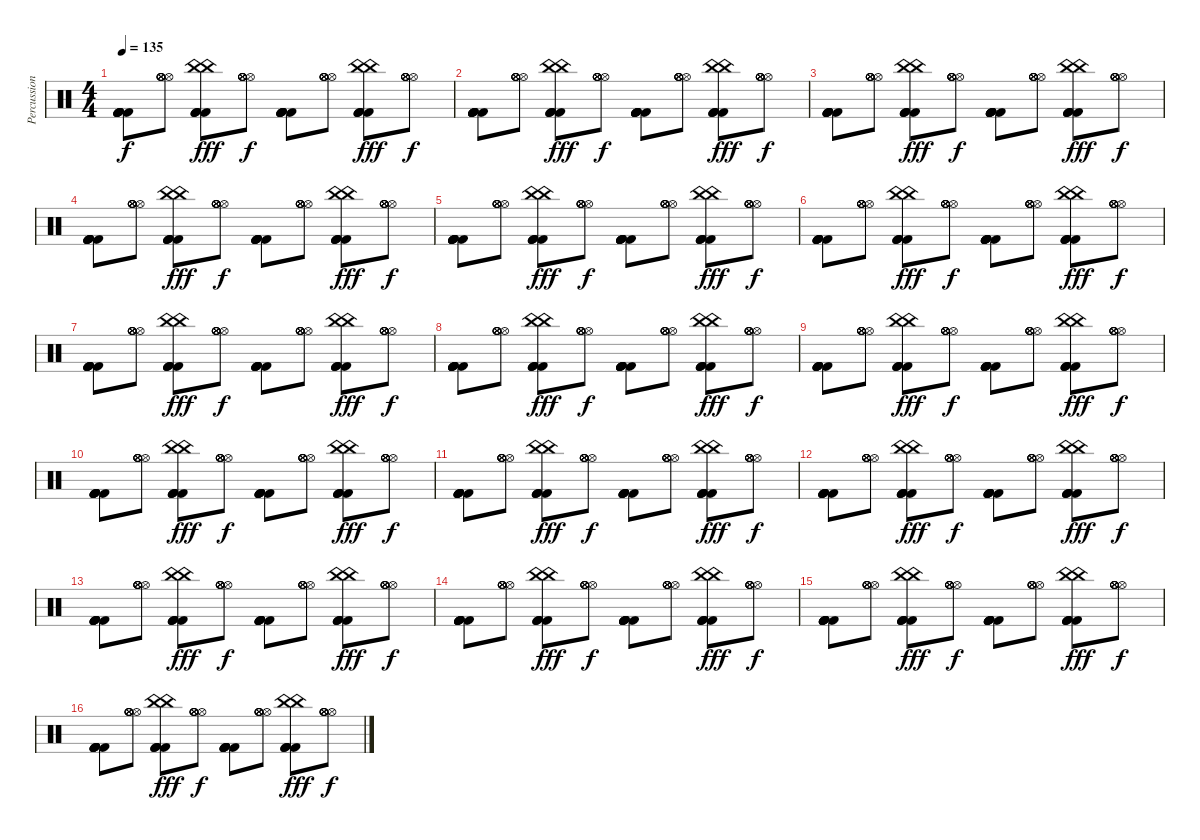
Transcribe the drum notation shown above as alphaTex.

\track ("Percussion" "Percussion") {instrument percussion}
\staff {score}
\articulation defaults
\ts (4 4)
\tempo 135
\clef neutral
\ks c
("Kick (hit) 2" "Kick (hit) 2" "Kick (hit) 2" "Kick (hit) 2" "Kick (hit) 2" "Kick (hit) 2").8{dy f} ("Hi-Hat (open)" "Hi-Hat (open)" "Hi-Hat (open)" "Hi-Hat (open)" "Hi-Hat (open)" "Hi-Hat (open)").8 ("China (hit)" "China (hit)" "Kick (hit) 2" "Kick (hit) 2" "Kick (hit) 2" "Kick (hit) 2").8{dy fff} ("Hi-Hat (open)" "Hi-Hat (open)" "Hi-Hat (open)" "Hi-Hat (open)" "Hi-Hat (open)" "Hi-Hat (open)").8{dy f} ("Kick (hit) 2" "Kick (hit) 2" "Kick (hit) 2" "Kick (hit) 2" "Kick (hit) 2" "Kick (hit) 2").8 ("Hi-Hat (open)" "Hi-Hat (open)" "Hi-Hat (open)" "Hi-Hat (open)" "Hi-Hat (open)" "Hi-Hat (open)").8 ("China (hit)" "China (hit)" "Kick (hit) 2" "Kick (hit) 2" "Kick (hit) 2" "Kick (hit) 2").8{dy fff} ("Hi-Hat (open)" "Hi-Hat (open)" "Hi-Hat (open)" "Hi-Hat (open)" "Hi-Hat (open)" "Hi-Hat (open)").8{dy f} |
("Kick (hit) 2" "Kick (hit) 2" "Kick (hit) 2" "Kick (hit) 2" "Kick (hit) 2" "Kick (hit) 2").8 ("Hi-Hat (open)" "Hi-Hat (open)" "Hi-Hat (open)" "Hi-Hat (open)" "Hi-Hat (open)" "Hi-Hat (open)").8 ("China (hit)" "China (hit)" "Kick (hit) 2" "Kick (hit) 2" "Kick (hit) 2" "Kick (hit) 2").8{dy fff} ("Hi-Hat (open)" "Hi-Hat (open)" "Hi-Hat (open)" "Hi-Hat (open)" "Hi-Hat (open)" "Hi-Hat (open)").8{dy f} ("Kick (hit) 2" "Kick (hit) 2" "Kick (hit) 2" "Kick (hit) 2" "Kick (hit) 2" "Kick (hit) 2").8 ("Hi-Hat (open)" "Hi-Hat (open)" "Hi-Hat (open)" "Hi-Hat (open)" "Hi-Hat (open)" "Hi-Hat (open)").8 ("China (hit)" "China (hit)" "Kick (hit) 2" "Kick (hit) 2" "Kick (hit) 2" "Kick (hit) 2").8{dy fff} ("Hi-Hat (open)" "Hi-Hat (open)" "Hi-Hat (open)" "Hi-Hat (open)" "Hi-Hat (open)" "Hi-Hat (open)").8{dy f} |
("Kick (hit) 2" "Kick (hit) 2" "Kick (hit) 2" "Kick (hit) 2" "Kick (hit) 2" "Kick (hit) 2").8 ("Hi-Hat (open)" "Hi-Hat (open)" "Hi-Hat (open)" "Hi-Hat (open)" "Hi-Hat (open)" "Hi-Hat (open)").8 ("China (hit)" "China (hit)" "Kick (hit) 2" "Kick (hit) 2" "Kick (hit) 2" "Kick (hit) 2").8{dy fff} ("Hi-Hat (open)" "Hi-Hat (open)" "Hi-Hat (open)" "Hi-Hat (open)" "Hi-Hat (open)" "Hi-Hat (open)").8{dy f} ("Kick (hit) 2" "Kick (hit) 2" "Kick (hit) 2" "Kick (hit) 2" "Kick (hit) 2" "Kick (hit) 2").8 ("Hi-Hat (open)" "Hi-Hat (open)" "Hi-Hat (open)" "Hi-Hat (open)" "Hi-Hat (open)" "Hi-Hat (open)").8 ("China (hit)" "China (hit)" "Kick (hit) 2" "Kick (hit) 2" "Kick (hit) 2" "Kick (hit) 2").8{dy fff} ("Hi-Hat (open)" "Hi-Hat (open)" "Hi-Hat (open)" "Hi-Hat (open)" "Hi-Hat (open)" "Hi-Hat (open)").8{dy f} |
("Kick (hit) 2" "Kick (hit) 2" "Kick (hit) 2" "Kick (hit) 2" "Kick (hit) 2" "Kick (hit) 2").8 ("Hi-Hat (open)" "Hi-Hat (open)" "Hi-Hat (open)" "Hi-Hat (open)" "Hi-Hat (open)" "Hi-Hat (open)").8 ("China (hit)" "China (hit)" "Kick (hit) 2" "Kick (hit) 2" "Kick (hit) 2" "Kick (hit) 2").8{dy fff} ("Hi-Hat (open)" "Hi-Hat (open)" "Hi-Hat (open)" "Hi-Hat (open)" "Hi-Hat (open)" "Hi-Hat (open)").8{dy f} ("Kick (hit) 2" "Kick (hit) 2" "Kick (hit) 2" "Kick (hit) 2" "Kick (hit) 2" "Kick (hit) 2").8 ("Hi-Hat (open)" "Hi-Hat (open)" "Hi-Hat (open)" "Hi-Hat (open)" "Hi-Hat (open)" "Hi-Hat (open)").8 ("China (hit)" "China (hit)" "Kick (hit) 2" "Kick (hit) 2" "Kick (hit) 2" "Kick (hit) 2").8{dy fff} ("Hi-Hat (open)" "Hi-Hat (open)" "Hi-Hat (open)" "Hi-Hat (open)" "Hi-Hat (open)" "Hi-Hat (open)").8{dy f} |
("Kick (hit) 2" "Kick (hit) 2" "Kick (hit) 2" "Kick (hit) 2" "Kick (hit) 2" "Kick (hit) 2").8 ("Hi-Hat (open)" "Hi-Hat (open)" "Hi-Hat (open)" "Hi-Hat (open)" "Hi-Hat (open)" "Hi-Hat (open)").8 ("China (hit)" "China (hit)" "Kick (hit) 2" "Kick (hit) 2" "Kick (hit) 2" "Kick (hit) 2").8{dy fff} ("Hi-Hat (open)" "Hi-Hat (open)" "Hi-Hat (open)" "Hi-Hat (open)" "Hi-Hat (open)" "Hi-Hat (open)").8{dy f} ("Kick (hit) 2" "Kick (hit) 2" "Kick (hit) 2" "Kick (hit) 2" "Kick (hit) 2" "Kick (hit) 2").8 ("Hi-Hat (open)" "Hi-Hat (open)" "Hi-Hat (open)" "Hi-Hat (open)" "Hi-Hat (open)" "Hi-Hat (open)").8 ("China (hit)" "China (hit)" "Kick (hit) 2" "Kick (hit) 2" "Kick (hit) 2" "Kick (hit) 2").8{dy fff} ("Hi-Hat (open)" "Hi-Hat (open)" "Hi-Hat (open)" "Hi-Hat (open)" "Hi-Hat (open)" "Hi-Hat (open)").8{dy f} |
("Kick (hit) 2" "Kick (hit) 2" "Kick (hit) 2" "Kick (hit) 2" "Kick (hit) 2" "Kick (hit) 2").8 ("Hi-Hat (open)" "Hi-Hat (open)" "Hi-Hat (open)" "Hi-Hat (open)" "Hi-Hat (open)" "Hi-Hat (open)").8 ("China (hit)" "China (hit)" "Kick (hit) 2" "Kick (hit) 2" "Kick (hit) 2" "Kick (hit) 2").8{dy fff} ("Hi-Hat (open)" "Hi-Hat (open)" "Hi-Hat (open)" "Hi-Hat (open)" "Hi-Hat (open)" "Hi-Hat (open)").8{dy f} ("Kick (hit) 2" "Kick (hit) 2" "Kick (hit) 2" "Kick (hit) 2" "Kick (hit) 2" "Kick (hit) 2").8 ("Hi-Hat (open)" "Hi-Hat (open)" "Hi-Hat (open)" "Hi-Hat (open)" "Hi-Hat (open)" "Hi-Hat (open)").8 ("China (hit)" "China (hit)" "Kick (hit) 2" "Kick (hit) 2" "Kick (hit) 2" "Kick (hit) 2").8{dy fff} ("Hi-Hat (open)" "Hi-Hat (open)" "Hi-Hat (open)" "Hi-Hat (open)" "Hi-Hat (open)" "Hi-Hat (open)").8{dy f} |
("Kick (hit) 2" "Kick (hit) 2" "Kick (hit) 2" "Kick (hit) 2" "Kick (hit) 2" "Kick (hit) 2").8 ("Hi-Hat (open)" "Hi-Hat (open)" "Hi-Hat (open)" "Hi-Hat (open)" "Hi-Hat (open)" "Hi-Hat (open)").8 ("China (hit)" "China (hit)" "Kick (hit) 2" "Kick (hit) 2" "Kick (hit) 2" "Kick (hit) 2").8{dy fff} ("Hi-Hat (open)" "Hi-Hat (open)" "Hi-Hat (open)" "Hi-Hat (open)" "Hi-Hat (open)" "Hi-Hat (open)").8{dy f} ("Kick (hit) 2" "Kick (hit) 2" "Kick (hit) 2" "Kick (hit) 2" "Kick (hit) 2" "Kick (hit) 2").8 ("Hi-Hat (open)" "Hi-Hat (open)" "Hi-Hat (open)" "Hi-Hat (open)" "Hi-Hat (open)" "Hi-Hat (open)").8 ("China (hit)" "China (hit)" "Kick (hit) 2" "Kick (hit) 2" "Kick (hit) 2" "Kick (hit) 2").8{dy fff} ("Hi-Hat (open)" "Hi-Hat (open)" "Hi-Hat (open)" "Hi-Hat (open)" "Hi-Hat (open)" "Hi-Hat (open)").8{dy f} |
("Kick (hit) 2" "Kick (hit) 2" "Kick (hit) 2" "Kick (hit) 2" "Kick (hit) 2" "Kick (hit) 2").8 ("Hi-Hat (open)" "Hi-Hat (open)" "Hi-Hat (open)" "Hi-Hat (open)" "Hi-Hat (open)" "Hi-Hat (open)").8 ("China (hit)" "China (hit)" "Kick (hit) 2" "Kick (hit) 2" "Kick (hit) 2" "Kick (hit) 2").8{dy fff} ("Hi-Hat (open)" "Hi-Hat (open)" "Hi-Hat (open)" "Hi-Hat (open)" "Hi-Hat (open)" "Hi-Hat (open)").8{dy f} ("Kick (hit) 2" "Kick (hit) 2" "Kick (hit) 2" "Kick (hit) 2" "Kick (hit) 2" "Kick (hit) 2").8 ("Hi-Hat (open)" "Hi-Hat (open)" "Hi-Hat (open)" "Hi-Hat (open)" "Hi-Hat (open)" "Hi-Hat (open)").8 ("China (hit)" "China (hit)" "Kick (hit) 2" "Kick (hit) 2" "Kick (hit) 2" "Kick (hit) 2").8{dy fff} ("Hi-Hat (open)" "Hi-Hat (open)" "Hi-Hat (open)" "Hi-Hat (open)" "Hi-Hat (open)" "Hi-Hat (open)").8{dy f} |
("Kick (hit) 2" "Kick (hit) 2" "Kick (hit) 2" "Kick (hit) 2" "Kick (hit) 2" "Kick (hit) 2").8 ("Hi-Hat (open)" "Hi-Hat (open)" "Hi-Hat (open)" "Hi-Hat (open)" "Hi-Hat (open)" "Hi-Hat (open)").8 ("China (hit)" "China (hit)" "Kick (hit) 2" "Kick (hit) 2" "Kick (hit) 2" "Kick (hit) 2").8{dy fff} ("Hi-Hat (open)" "Hi-Hat (open)" "Hi-Hat (open)" "Hi-Hat (open)" "Hi-Hat (open)" "Hi-Hat (open)").8{dy f} ("Kick (hit) 2" "Kick (hit) 2" "Kick (hit) 2" "Kick (hit) 2" "Kick (hit) 2" "Kick (hit) 2").8 ("Hi-Hat (open)" "Hi-Hat (open)" "Hi-Hat (open)" "Hi-Hat (open)" "Hi-Hat (open)" "Hi-Hat (open)").8 ("China (hit)" "China (hit)" "Kick (hit) 2" "Kick (hit) 2" "Kick (hit) 2" "Kick (hit) 2").8{dy fff} ("Hi-Hat (open)" "Hi-Hat (open)" "Hi-Hat (open)" "Hi-Hat (open)" "Hi-Hat (open)" "Hi-Hat (open)").8{dy f} |
("Kick (hit) 2" "Kick (hit) 2" "Kick (hit) 2" "Kick (hit) 2" "Kick (hit) 2" "Kick (hit) 2").8 ("Hi-Hat (open)" "Hi-Hat (open)" "Hi-Hat (open)" "Hi-Hat (open)" "Hi-Hat (open)" "Hi-Hat (open)").8 ("China (hit)" "China (hit)" "Kick (hit) 2" "Kick (hit) 2" "Kick (hit) 2" "Kick (hit) 2").8{dy fff} ("Hi-Hat (open)" "Hi-Hat (open)" "Hi-Hat (open)" "Hi-Hat (open)" "Hi-Hat (open)" "Hi-Hat (open)").8{dy f} ("Kick (hit) 2" "Kick (hit) 2" "Kick (hit) 2" "Kick (hit) 2" "Kick (hit) 2" "Kick (hit) 2").8 ("Hi-Hat (open)" "Hi-Hat (open)" "Hi-Hat (open)" "Hi-Hat (open)" "Hi-Hat (open)" "Hi-Hat (open)").8 ("China (hit)" "China (hit)" "Kick (hit) 2" "Kick (hit) 2" "Kick (hit) 2" "Kick (hit) 2").8{dy fff} ("Hi-Hat (open)" "Hi-Hat (open)" "Hi-Hat (open)" "Hi-Hat (open)" "Hi-Hat (open)" "Hi-Hat (open)").8{dy f} |
("Kick (hit) 2" "Kick (hit) 2" "Kick (hit) 2" "Kick (hit) 2" "Kick (hit) 2" "Kick (hit) 2").8 ("Hi-Hat (open)" "Hi-Hat (open)" "Hi-Hat (open)" "Hi-Hat (open)" "Hi-Hat (open)" "Hi-Hat (open)").8 ("China (hit)" "China (hit)" "Kick (hit) 2" "Kick (hit) 2" "Kick (hit) 2" "Kick (hit) 2").8{dy fff} ("Hi-Hat (open)" "Hi-Hat (open)" "Hi-Hat (open)" "Hi-Hat (open)" "Hi-Hat (open)" "Hi-Hat (open)").8{dy f} ("Kick (hit) 2" "Kick (hit) 2" "Kick (hit) 2" "Kick (hit) 2" "Kick (hit) 2" "Kick (hit) 2").8 ("Hi-Hat (open)" "Hi-Hat (open)" "Hi-Hat (open)" "Hi-Hat (open)" "Hi-Hat (open)" "Hi-Hat (open)").8 ("China (hit)" "China (hit)" "Kick (hit) 2" "Kick (hit) 2" "Kick (hit) 2" "Kick (hit) 2").8{dy fff} ("Hi-Hat (open)" "Hi-Hat (open)" "Hi-Hat (open)" "Hi-Hat (open)" "Hi-Hat (open)" "Hi-Hat (open)").8{dy f} |
("Kick (hit) 2" "Kick (hit) 2" "Kick (hit) 2" "Kick (hit) 2" "Kick (hit) 2" "Kick (hit) 2").8 ("Hi-Hat (open)" "Hi-Hat (open)" "Hi-Hat (open)" "Hi-Hat (open)" "Hi-Hat (open)" "Hi-Hat (open)").8 ("China (hit)" "China (hit)" "Kick (hit) 2" "Kick (hit) 2" "Kick (hit) 2" "Kick (hit) 2").8{dy fff} ("Hi-Hat (open)" "Hi-Hat (open)" "Hi-Hat (open)" "Hi-Hat (open)" "Hi-Hat (open)" "Hi-Hat (open)").8{dy f} ("Kick (hit) 2" "Kick (hit) 2" "Kick (hit) 2" "Kick (hit) 2" "Kick (hit) 2" "Kick (hit) 2").8 ("Hi-Hat (open)" "Hi-Hat (open)" "Hi-Hat (open)" "Hi-Hat (open)" "Hi-Hat (open)" "Hi-Hat (open)").8 ("China (hit)" "China (hit)" "Kick (hit) 2" "Kick (hit) 2" "Kick (hit) 2" "Kick (hit) 2").8{dy fff} ("Hi-Hat (open)" "Hi-Hat (open)" "Hi-Hat (open)" "Hi-Hat (open)" "Hi-Hat (open)" "Hi-Hat (open)").8{dy f} |
("Kick (hit) 2" "Kick (hit) 2" "Kick (hit) 2" "Kick (hit) 2" "Kick (hit) 2" "Kick (hit) 2").8 ("Hi-Hat (open)" "Hi-Hat (open)" "Hi-Hat (open)" "Hi-Hat (open)" "Hi-Hat (open)" "Hi-Hat (open)").8 ("China (hit)" "China (hit)" "Kick (hit) 2" "Kick (hit) 2" "Kick (hit) 2" "Kick (hit) 2").8{dy fff} ("Hi-Hat (open)" "Hi-Hat (open)" "Hi-Hat (open)" "Hi-Hat (open)" "Hi-Hat (open)" "Hi-Hat (open)").8{dy f} ("Kick (hit) 2" "Kick (hit) 2" "Kick (hit) 2" "Kick (hit) 2" "Kick (hit) 2" "Kick (hit) 2").8 ("Hi-Hat (open)" "Hi-Hat (open)" "Hi-Hat (open)" "Hi-Hat (open)" "Hi-Hat (open)" "Hi-Hat (open)").8 ("China (hit)" "China (hit)" "Kick (hit) 2" "Kick (hit) 2" "Kick (hit) 2" "Kick (hit) 2").8{dy fff} ("Hi-Hat (open)" "Hi-Hat (open)" "Hi-Hat (open)" "Hi-Hat (open)" "Hi-Hat (open)" "Hi-Hat (open)").8{dy f} |
("Kick (hit) 2" "Kick (hit) 2" "Kick (hit) 2" "Kick (hit) 2" "Kick (hit) 2" "Kick (hit) 2").8 ("Hi-Hat (open)" "Hi-Hat (open)" "Hi-Hat (open)" "Hi-Hat (open)" "Hi-Hat (open)" "Hi-Hat (open)").8 ("China (hit)" "China (hit)" "Kick (hit) 2" "Kick (hit) 2" "Kick (hit) 2" "Kick (hit) 2").8{dy fff} ("Hi-Hat (open)" "Hi-Hat (open)" "Hi-Hat (open)" "Hi-Hat (open)" "Hi-Hat (open)" "Hi-Hat (open)").8{dy f} ("Kick (hit) 2" "Kick (hit) 2" "Kick (hit) 2" "Kick (hit) 2" "Kick (hit) 2" "Kick (hit) 2").8 ("Hi-Hat (open)" "Hi-Hat (open)" "Hi-Hat (open)" "Hi-Hat (open)" "Hi-Hat (open)" "Hi-Hat (open)").8 ("China (hit)" "China (hit)" "Kick (hit) 2" "Kick (hit) 2" "Kick (hit) 2" "Kick (hit) 2").8{dy fff} ("Hi-Hat (open)" "Hi-Hat (open)" "Hi-Hat (open)" "Hi-Hat (open)" "Hi-Hat (open)" "Hi-Hat (open)").8{dy f} |
("Kick (hit) 2" "Kick (hit) 2" "Kick (hit) 2" "Kick (hit) 2" "Kick (hit) 2" "Kick (hit) 2").8 ("Hi-Hat (open)" "Hi-Hat (open)" "Hi-Hat (open)" "Hi-Hat (open)" "Hi-Hat (open)" "Hi-Hat (open)").8 ("China (hit)" "China (hit)" "Kick (hit) 2" "Kick (hit) 2" "Kick (hit) 2" "Kick (hit) 2").8{dy fff} ("Hi-Hat (open)" "Hi-Hat (open)" "Hi-Hat (open)" "Hi-Hat (open)" "Hi-Hat (open)" "Hi-Hat (open)").8{dy f} ("Kick (hit) 2" "Kick (hit) 2" "Kick (hit) 2" "Kick (hit) 2" "Kick (hit) 2" "Kick (hit) 2").8 ("Hi-Hat (open)" "Hi-Hat (open)" "Hi-Hat (open)" "Hi-Hat (open)" "Hi-Hat (open)" "Hi-Hat (open)").8 ("China (hit)" "China (hit)" "Kick (hit) 2" "Kick (hit) 2" "Kick (hit) 2" "Kick (hit) 2").8{dy fff} ("Hi-Hat (open)" "Hi-Hat (open)" "Hi-Hat (open)" "Hi-Hat (open)" "Hi-Hat (open)" "Hi-Hat (open)").8{dy f} |
("Kick (hit) 2" "Kick (hit) 2" "Kick (hit) 2" "Kick (hit) 2" "Kick (hit) 2" "Kick (hit) 2").8 ("Hi-Hat (open)" "Hi-Hat (open)" "Hi-Hat (open)" "Hi-Hat (open)" "Hi-Hat (open)" "Hi-Hat (open)").8 ("China (hit)" "China (hit)" "Kick (hit) 2" "Kick (hit) 2" "Kick (hit) 2" "Kick (hit) 2").8{dy fff} ("Hi-Hat (open)" "Hi-Hat (open)" "Hi-Hat (open)" "Hi-Hat (open)" "Hi-Hat (open)" "Hi-Hat (open)").8{dy f} ("Kick (hit) 2" "Kick (hit) 2" "Kick (hit) 2" "Kick (hit) 2" "Kick (hit) 2" "Kick (hit) 2").8 ("Hi-Hat (open)" "Hi-Hat (open)" "Hi-Hat (open)" "Hi-Hat (open)" "Hi-Hat (open)" "Hi-Hat (open)").8 ("China (hit)" "China (hit)" "Kick (hit) 2" "Kick (hit) 2" "Kick (hit) 2" "Kick (hit) 2").8{dy fff} ("Hi-Hat (open)" "Hi-Hat (open)" "Hi-Hat (open)" "Hi-Hat (open)" "Hi-Hat (open)" "Hi-Hat (open)").8{dy f}
